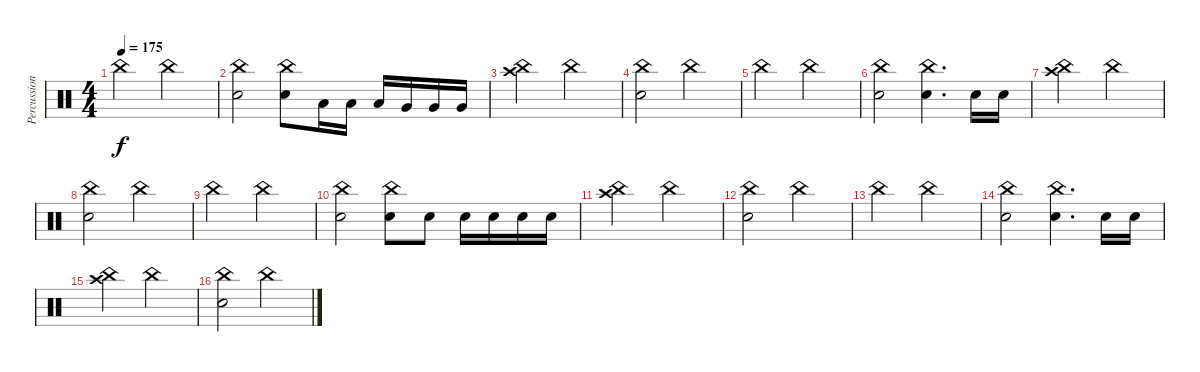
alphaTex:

\track ("Percussion" "Percussion") {instrument percussion}
\staff {score}
\articulation defaults
\ts (4 4)
\tempo 175
\clef neutral
\ks c "China (hit)".2{dy f} "China (hit)".2
|
("China (hit)" "Electric Snare (hit)").2 ("China (hit)" "Electric Snare (hit)").8 "Low Floor Tom (hit)".16 "Low Floor Tom (hit)".16 "Low Floor Tom (hit)".16 "Very Low Tom (hit)".16 "Very Low Tom (hit)".16 "Very Low Tom (hit)".16 |
("China (hit)" "Crash high (hit)").2 "China (hit)".2 |
("China (hit)" "Electric Snare (hit)").2 "China (hit)".2 |
"China (hit)".2 "China (hit)".2 |
("China (hit)" "Electric Snare (hit)").2 ("China (hit)" "Electric Snare (hit)").4{d} "Electric Snare (hit)".16 "Electric Snare (hit)".16 |
("China (hit)" "Crash high (hit)").2 "China (hit)".2 |
("China (hit)" "Electric Snare (hit)").2 "China (hit)".2 |
"China (hit)".2 "China (hit)".2 |
("China (hit)" "Electric Snare (hit)").2 ("China (hit)" "Electric Snare (hit)").8 "Electric Snare (hit)".8 "Electric Snare (hit)".16 "Electric Snare (hit)".16 "Electric Snare (hit)".16 "Electric Snare (hit)".16 |
("China (hit)" "Crash high (hit)").2 "China (hit)".2 |
("China (hit)" "Electric Snare (hit)").2 "China (hit)".2 |
"China (hit)".2 "China (hit)".2 |
("China (hit)" "Electric Snare (hit)").2 ("China (hit)" "Electric Snare (hit)").4{d} "Electric Snare (hit)".16 "Electric Snare (hit)".16 |
("China (hit)" "Crash high (hit)").2 "China (hit)".2 |
("China (hit)" "Electric Snare (hit)").2 "China (hit)".2
